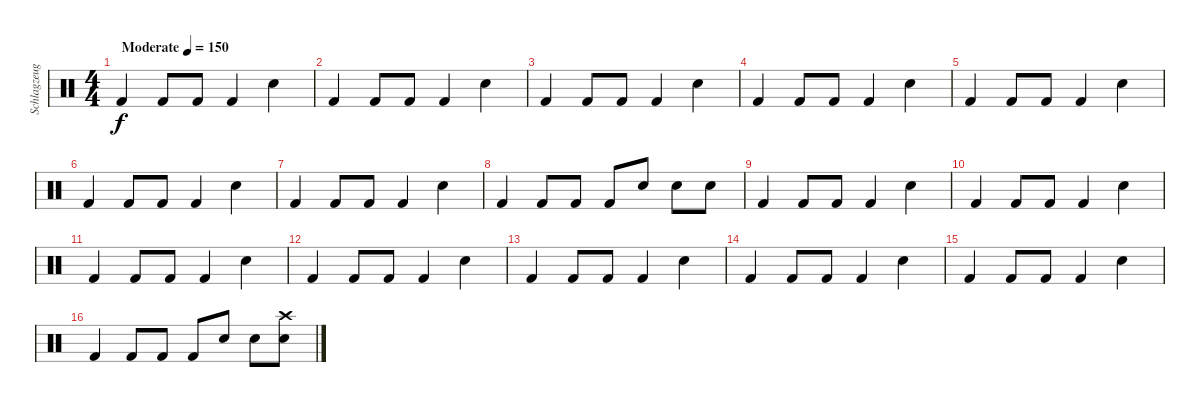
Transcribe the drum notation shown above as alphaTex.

\track ("Schlagzeug" "Schlagzeug") {instrument percussion}
\staff {score}
\articulation defaults
\ts (4 4)
\tempo (150 "Moderate")
\clef neutral
\ks c "Kick (hit) 2".4{dy f} "Kick (hit) 2".8 "Kick (hit) 2".8 "Kick (hit) 2".4 "Snare (hit) 2".4
|
"Kick (hit) 2".4 "Kick (hit) 2".8 "Kick (hit) 2".8 "Kick (hit) 2".4 "Snare (hit) 2".4 |
"Kick (hit) 2".4 "Kick (hit) 2".8 "Kick (hit) 2".8 "Kick (hit) 2".4 "Snare (hit) 2".4 |
"Kick (hit) 2".4 "Kick (hit) 2".8 "Kick (hit) 2".8 "Kick (hit) 2".4 "Snare (hit) 2".4 |
"Kick (hit) 2".4 "Kick (hit) 2".8 "Kick (hit) 2".8 "Kick (hit) 2".4 "Snare (hit) 2".4 |
"Kick (hit) 2".4 "Kick (hit) 2".8 "Kick (hit) 2".8 "Kick (hit) 2".4 "Snare (hit) 2".4 |
"Kick (hit) 2".4 "Kick (hit) 2".8 "Kick (hit) 2".8 "Kick (hit) 2".4 "Snare (hit) 2".4 |
"Kick (hit) 2".4 "Kick (hit) 2".8 "Kick (hit) 2".8 "Kick (hit) 2".8 "Snare (hit) 2".8 "Snare (hit) 2".8 "Snare (hit) 2".8 |
"Kick (hit) 2".4 "Kick (hit) 2".8 "Kick (hit) 2".8 "Kick (hit) 2".4 "Snare (hit) 2".4 |
"Kick (hit) 2".4 "Kick (hit) 2".8 "Kick (hit) 2".8 "Kick (hit) 2".4 "Snare (hit) 2".4 |
"Kick (hit) 2".4 "Kick (hit) 2".8 "Kick (hit) 2".8 "Kick (hit) 2".4 "Snare (hit) 2".4 |
"Kick (hit) 2".4 "Kick (hit) 2".8 "Kick (hit) 2".8 "Kick (hit) 2".4 "Snare (hit) 2".4 |
"Kick (hit) 2".4 "Kick (hit) 2".8 "Kick (hit) 2".8 "Kick (hit) 2".4 "Snare (hit) 2".4 |
"Kick (hit) 2".4 "Kick (hit) 2".8 "Kick (hit) 2".8 "Kick (hit) 2".4 "Snare (hit) 2".4 |
"Kick (hit) 2".4 "Kick (hit) 2".8 "Kick (hit) 2".8 "Kick (hit) 2".4 "Snare (hit) 2".4 |
"Kick (hit) 2".4 "Kick (hit) 2".8 "Kick (hit) 2".8 "Kick (hit) 2".8 "Snare (hit) 2".8 "Snare (hit) 2".8 ("Crash high (hit)" "Snare (hit) 2").8
